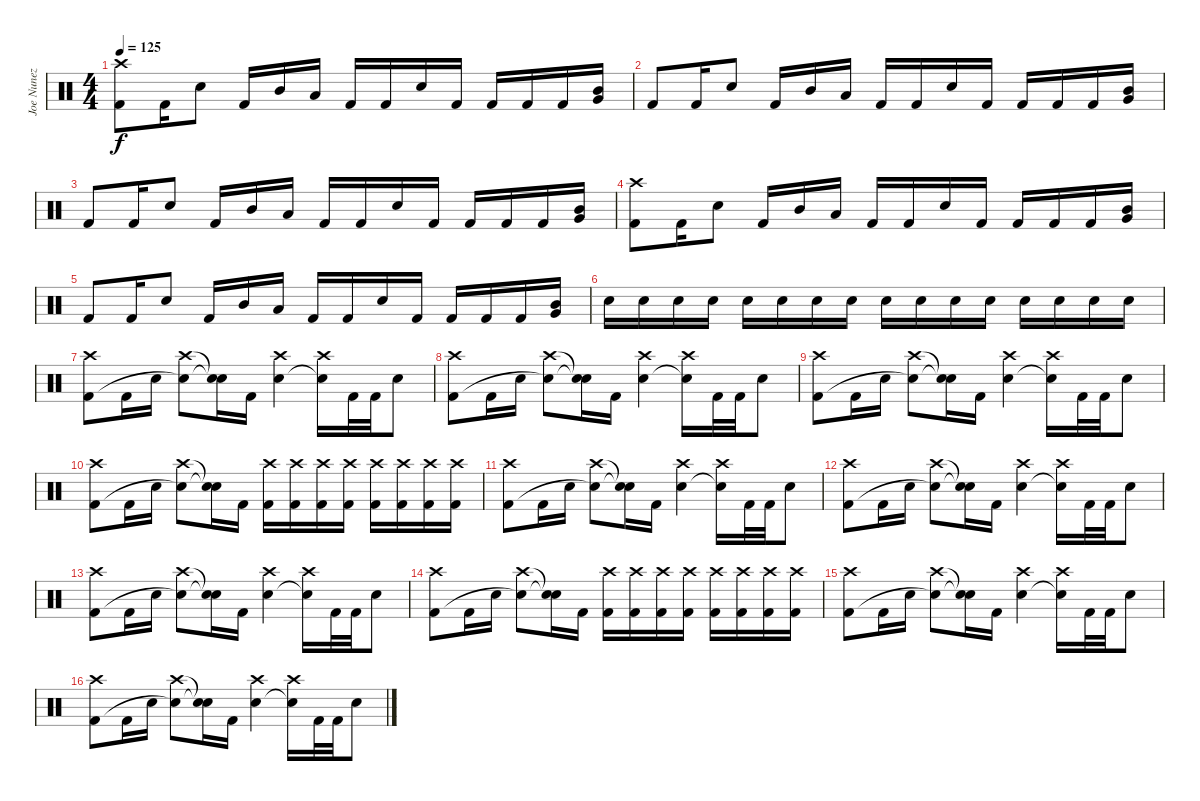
\track ("Joe Nunez" "Joe Nunez") {instrument percussion}
\staff {score}
\articulation defaults
\ts (4 4)
\tempo 125
\clef neutral
\ks c
("Crash high (hit)" "Kick (hit) 2").8{dy f} "Kick (hit) 2".16 "Snare (hit) 2".8 "Kick (hit) 2".16 "Mid Tom (hit)".16 "Low Tom (hit)".16 "Kick (hit) 2".16 "Kick (hit) 2".16 "Snare (hit) 2".16 "Kick (hit) 2".16 "Kick (hit) 2".16 "Kick (hit) 2".16 "Kick (hit) 2".16 ("Mid Tom (hit)" "Very Low Tom (hit)").16 |
"Kick (hit) 2".8 "Kick (hit) 2".16 "Snare (hit) 2".8 "Kick (hit) 2".16 "Mid Tom (hit)".16 "Low Tom (hit)".16 "Kick (hit) 2".16 "Kick (hit) 2".16 "Snare (hit) 2".16 "Kick (hit) 2".16 "Kick (hit) 2".16 "Kick (hit) 2".16 "Kick (hit) 2".16 ("Mid Tom (hit)" "Very Low Tom (hit)").16 |
"Kick (hit) 2".8 "Kick (hit) 2".16 "Snare (hit) 2".8 "Kick (hit) 2".16 "Mid Tom (hit)".16 "Low Tom (hit)".16 "Kick (hit) 2".16 "Kick (hit) 2".16 "Snare (hit) 2".16 "Kick (hit) 2".16 "Kick (hit) 2".16 "Kick (hit) 2".16 "Kick (hit) 2".16 ("Mid Tom (hit)" "Very Low Tom (hit)").16 |
("Crash high (hit)" "Kick (hit) 2").8 "Kick (hit) 2".16 "Snare (hit) 2".8 "Kick (hit) 2".16 "Mid Tom (hit)".16 "Low Tom (hit)".16 "Kick (hit) 2".16 "Kick (hit) 2".16 "Snare (hit) 2".16 "Kick (hit) 2".16 "Kick (hit) 2".16 "Kick (hit) 2".16 "Kick (hit) 2".16 ("Mid Tom (hit)" "Very Low Tom (hit)").16 |
"Kick (hit) 2".8 "Kick (hit) 2".16 "Snare (hit) 2".8 "Kick (hit) 2".16 "Mid Tom (hit)".16 "Low Tom (hit)".16 "Kick (hit) 2".16 "Kick (hit) 2".16 "Snare (hit) 2".16 "Kick (hit) 2".16 "Kick (hit) 2".16 "Kick (hit) 2".16 "Kick (hit) 2".16 ("Mid Tom (hit)" "Very Low Tom (hit)").16 |
"Snare (hit) 2".16 "Snare (hit) 2".16 "Snare (hit) 2".16 "Snare (hit) 2".16 "Snare (hit) 2".16 "Snare (hit) 2".16 "Snare (hit) 2".16 "Snare (hit) 2".16 "Snare (hit) 2".16 "Snare (hit) 2".16 "Snare (hit) 2".16 "Snare (hit) 2".16 "Snare (hit) 2".16 "Snare (hit) 2".16 "Snare (hit) 2".16 "Snare (hit) 2".16 |
("Crash high (hit)" "Kick (hit) 2").8 "Kick (hit) 2".16 "Snare (hit) 2".16 ("Crash high (hit)" "Snare (hit)"{t}).8 ("Snare (hit)"{t} "Snare (hit)"{t}).16 "Kick (hit) 2".16 ("Crash high (hit)" "Snare (hit) 2").4 ("Crash high (hit)" "Snare (hit)"{t}).16 "Kick (hit) 2".32 "Kick (hit) 2".32 "Snare (hit) 2".8 |
("Crash high (hit)" "Kick (hit) 2").8 "Kick (hit) 2".16 "Snare (hit) 2".16 ("Crash high (hit)" "Snare (hit)"{t}).8 ("Snare (hit)"{t} "Snare (hit)"{t}).16 "Kick (hit) 2".16 ("Crash high (hit)" "Snare (hit) 2").4 ("Crash high (hit)" "Snare (hit)"{t}).16 "Kick (hit) 2".32 "Kick (hit) 2".32 "Snare (hit) 2".8 |
("Crash high (hit)" "Kick (hit) 2").8 "Kick (hit) 2".16 "Snare (hit) 2".16 ("Crash high (hit)" "Snare (hit)"{t}).8 ("Snare (hit)"{t} "Snare (hit)"{t}).16 "Kick (hit) 2".16 ("Crash high (hit)" "Snare (hit) 2").4 ("Crash high (hit)" "Snare (hit)"{t}).16 "Kick (hit) 2".32 "Kick (hit) 2".32 "Snare (hit) 2".8 |
("Crash high (hit)" "Kick (hit) 2").8 "Kick (hit) 2".16 "Snare (hit) 2".16 ("Crash high (hit)" "Snare (hit)"{t}).8 ("Snare (hit)"{t} "Snare (hit)"{t}).16 "Kick (hit) 2".16 ("Crash high (hit)" "Kick (hit) 2").16 ("Crash high (hit)" "Kick (hit) 2").16 ("Crash high (hit)" "Kick (hit) 2").16 ("Crash high (hit)" "Kick (hit) 2").16 ("Crash high (hit)" "Kick (hit) 2").16 ("Crash high (hit)" "Kick (hit) 2").16 ("Crash high (hit)" "Kick (hit) 2").16 ("Crash high (hit)" "Kick (hit) 2").16 |
("Crash high (hit)" "Kick (hit) 2").8 "Kick (hit) 2".16 "Snare (hit) 2".16 ("Crash high (hit)" "Snare (hit)"{t}).8 ("Snare (hit)"{t} "Snare (hit)"{t}).16 "Kick (hit) 2".16 ("Crash high (hit)" "Snare (hit) 2").4 ("Crash high (hit)" "Snare (hit)"{t}).16 "Kick (hit) 2".32 "Kick (hit) 2".32 "Snare (hit) 2".8 |
("Crash high (hit)" "Kick (hit) 2").8 "Kick (hit) 2".16 "Snare (hit) 2".16 ("Crash high (hit)" "Snare (hit)"{t}).8 ("Snare (hit)"{t} "Snare (hit)"{t}).16 "Kick (hit) 2".16 ("Crash high (hit)" "Snare (hit) 2").4 ("Crash high (hit)" "Snare (hit)"{t}).16 "Kick (hit) 2".32 "Kick (hit) 2".32 "Snare (hit) 2".8 |
("Crash high (hit)" "Kick (hit) 2").8 "Kick (hit) 2".16 "Snare (hit) 2".16 ("Crash high (hit)" "Snare (hit)"{t}).8 ("Snare (hit)"{t} "Snare (hit)"{t}).16 "Kick (hit) 2".16 ("Crash high (hit)" "Snare (hit) 2").4 ("Crash high (hit)" "Snare (hit)"{t}).16 "Kick (hit) 2".32 "Kick (hit) 2".32 "Snare (hit) 2".8 |
("Crash high (hit)" "Kick (hit) 2").8 "Kick (hit) 2".16 "Snare (hit) 2".16 ("Crash high (hit)" "Snare (hit)"{t}).8 ("Snare (hit)"{t} "Snare (hit)"{t}).16 "Kick (hit) 2".16 ("Crash high (hit)" "Kick (hit) 2").16 ("Crash high (hit)" "Kick (hit) 2").16 ("Crash high (hit)" "Kick (hit) 2").16 ("Crash high (hit)" "Kick (hit) 2").16 ("Crash high (hit)" "Kick (hit) 2").16 ("Crash high (hit)" "Kick (hit) 2").16 ("Crash high (hit)" "Kick (hit) 2").16 ("Crash high (hit)" "Kick (hit) 2").16 |
("Crash high (hit)" "Kick (hit) 2").8 "Kick (hit) 2".16 "Snare (hit) 2".16 ("Crash high (hit)" "Snare (hit)"{t}).8 ("Snare (hit)"{t} "Snare (hit)"{t}).16 "Kick (hit) 2".16 ("Crash high (hit)" "Snare (hit) 2").4 ("Crash high (hit)" "Snare (hit)"{t}).16 "Kick (hit) 2".32 "Kick (hit) 2".32 "Snare (hit) 2".8 |
("Crash high (hit)" "Kick (hit) 2").8 "Kick (hit) 2".16 "Snare (hit) 2".16 ("Crash high (hit)" "Snare (hit)"{t}).8 ("Snare (hit)"{t} "Snare (hit)"{t}).16 "Kick (hit) 2".16 ("Crash high (hit)" "Snare (hit) 2").4 ("Crash high (hit)" "Snare (hit)"{t}).16 "Kick (hit) 2".32 "Kick (hit) 2".32 "Snare (hit) 2".8
